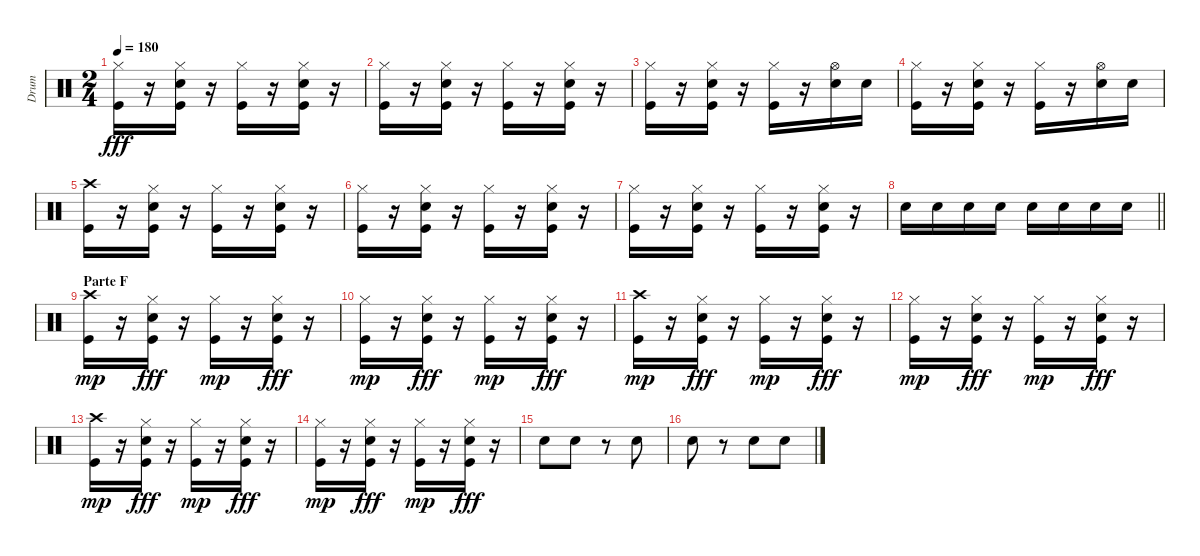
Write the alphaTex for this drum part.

\track ("Drum" "Drum") {instrument percussion}
\staff {score}
\articulation defaults
\ts (2 4)
\tempo 180
\clef neutral
\ks c
("Hi-Hat (closed)" "Kick (hit)").16{dy fff} r.16 ("Hi-Hat (closed)" "Snare (hit) 2" "Kick (hit)").16 r.16 ("Hi-Hat (closed)" "Kick (hit)").16 r.16 ("Hi-Hat (closed)" "Snare (hit) 2" "Kick (hit)").16 r.16 |
("Hi-Hat (closed)" "Kick (hit)").16 r.16 ("Hi-Hat (closed)" "Snare (hit) 2" "Kick (hit)").16 r.16 ("Hi-Hat (closed)" "Kick (hit)").16 r.16 ("Hi-Hat (closed)" "Snare (hit) 2" "Kick (hit)").16 r.16 |
("Hi-Hat (closed)" "Kick (hit)").16 r.16 ("Hi-Hat (closed)" "Snare (hit) 2" "Kick (hit)").16 r.16 ("Hi-Hat (closed)" "Kick (hit)").16 r.16 ("Hi-Hat (open)" "Snare (hit) 2").16 "Snare (hit) 2".16 |
("Hi-Hat (closed)" "Kick (hit)").16 r.16 ("Hi-Hat (closed)" "Snare (hit) 2" "Kick (hit)").16 r.16 ("Hi-Hat (closed)" "Kick (hit)").16 r.16 ("Hi-Hat (open)" "Snare (hit) 2").16 "Snare (hit) 2".16 |
("Crash high (hit)" "Kick (hit)").16 r.16 ("Hi-Hat (closed)" "Snare (hit) 2" "Kick (hit)").16 r.16 ("Hi-Hat (closed)" "Kick (hit)").16 r.16 ("Hi-Hat (closed)" "Snare (hit) 2" "Kick (hit)").16 r.16 |
("Hi-Hat (closed)" "Kick (hit)").16 r.16 ("Hi-Hat (closed)" "Snare (hit) 2" "Kick (hit)").16 r.16 ("Hi-Hat (closed)" "Kick (hit)").16 r.16 ("Hi-Hat (closed)" "Snare (hit) 2" "Kick (hit)").16 r.16 |
("Hi-Hat (closed)" "Kick (hit)").16 r.16 ("Hi-Hat (closed)" "Snare (hit) 2" "Kick (hit)").16 r.16 ("Hi-Hat (closed)" "Kick (hit)").16 r.16 ("Hi-Hat (closed)" "Snare (hit) 2" "Kick (hit)").16 r.16 |
\barLineRight lightlight "Snare (hit) 2".16 "Snare (hit) 2".16 "Snare (hit) 2".16 "Snare (hit) 2".16 "Snare (hit) 2".16 "Snare (hit) 2".16 "Snare (hit) 2".16 "Snare (hit) 2".16
|
\section ("" "Parte F")
("Crash high (hit)" "Kick (hit)").16{dy mp} r.16 ("Hi-Hat (closed)" "Snare (hit) 2" "Kick (hit)").16{dy fff} r.16 ("Hi-Hat (closed)" "Kick (hit)").16{dy mp} r.16 ("Hi-Hat (closed)" "Snare (hit) 2" "Kick (hit)").16{dy fff} r.16 |
("Hi-Hat (closed)" "Kick (hit)").16{dy mp} r.16 ("Hi-Hat (closed)" "Snare (hit) 2" "Kick (hit)").16{dy fff} r.16 ("Hi-Hat (closed)" "Kick (hit)").16{dy mp} r.16 ("Hi-Hat (closed)" "Snare (hit) 2" "Kick (hit)").16{dy fff} r.16 |
("Crash high (hit)" "Kick (hit)").16{dy mp} r.16 ("Hi-Hat (closed)" "Snare (hit) 2" "Kick (hit)").16{dy fff} r.16 ("Hi-Hat (closed)" "Kick (hit)").16{dy mp} r.16 ("Hi-Hat (closed)" "Snare (hit) 2" "Kick (hit)").16{dy fff} r.16 |
("Hi-Hat (closed)" "Kick (hit)").16{dy mp} r.16 ("Hi-Hat (closed)" "Snare (hit) 2" "Kick (hit)").16{dy fff} r.16 ("Hi-Hat (closed)" "Kick (hit)").16{dy mp} r.16 ("Hi-Hat (closed)" "Snare (hit) 2" "Kick (hit)").16{dy fff} r.16 |
("Crash high (hit)" "Kick (hit)").16{dy mp} r.16 ("Hi-Hat (closed)" "Snare (hit) 2" "Kick (hit)").16{dy fff} r.16 ("Hi-Hat (closed)" "Kick (hit)").16{dy mp} r.16 ("Hi-Hat (closed)" "Snare (hit) 2" "Kick (hit)").16{dy fff} r.16 |
("Hi-Hat (closed)" "Kick (hit)").16{dy mp} r.16 ("Hi-Hat (closed)" "Snare (hit) 2" "Kick (hit)").16{dy fff} r.16 ("Hi-Hat (closed)" "Kick (hit)").16{dy mp} r.16 ("Hi-Hat (closed)" "Snare (hit) 2" "Kick (hit)").16{dy fff} r.16 |
"Snare (hit) 2".8 "Snare (hit) 2".8 r.8 "Snare (hit) 2".8 |
"Snare (hit) 2".8 r.8 "Snare (hit) 2".8 "Snare (hit) 2".8
